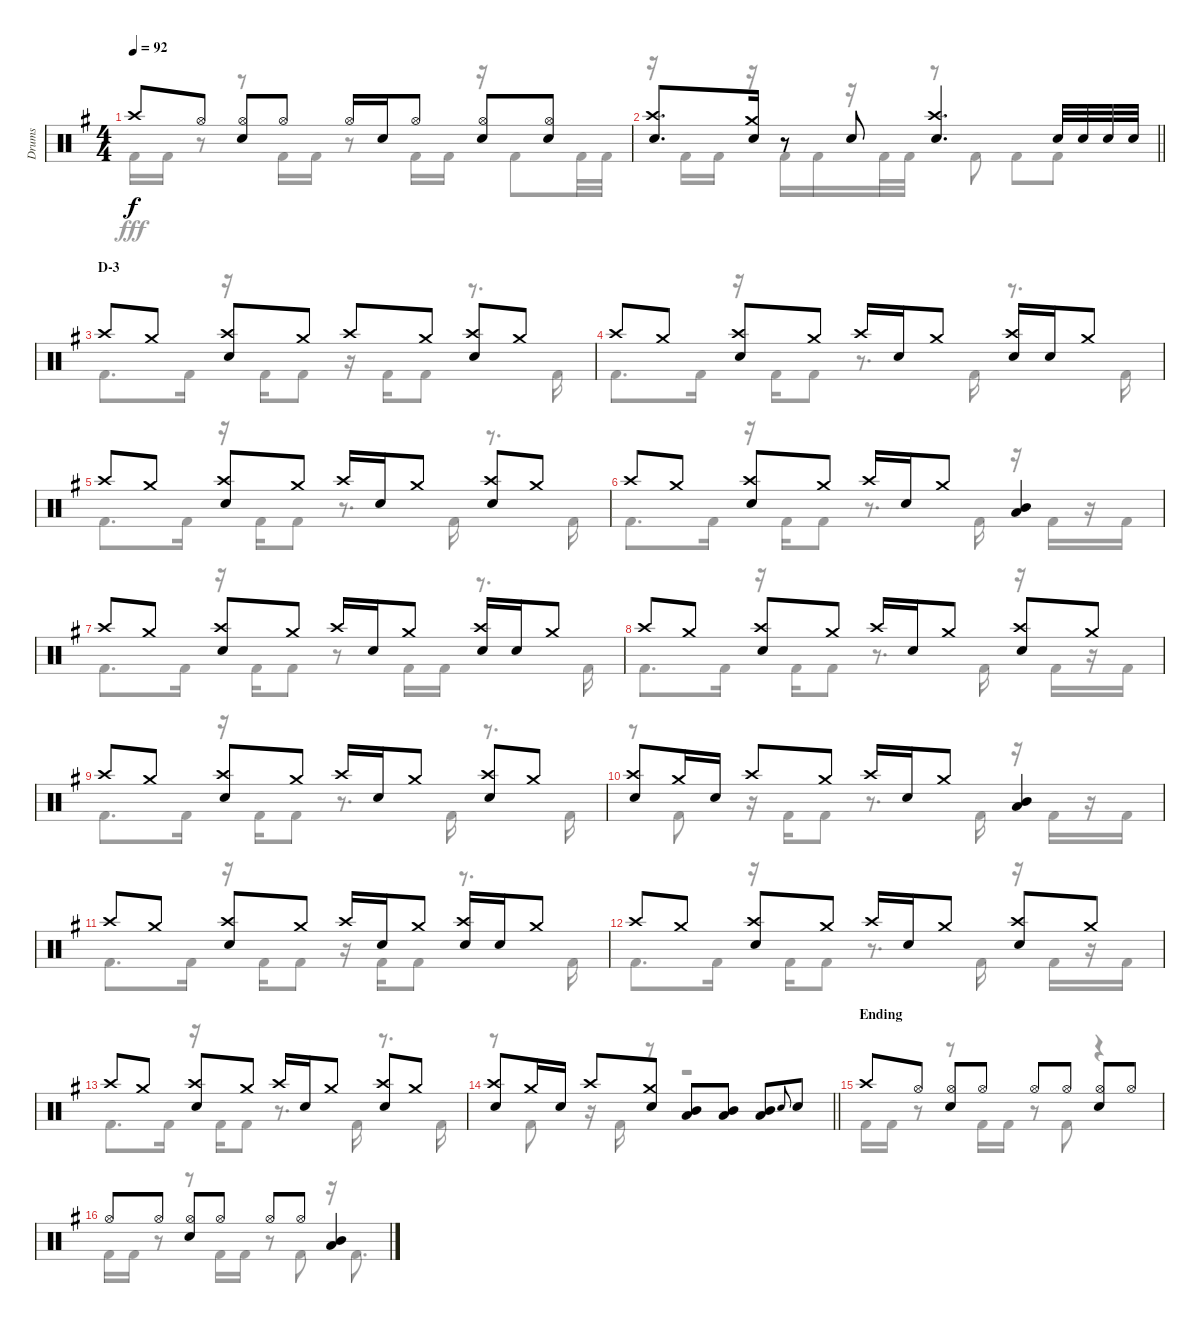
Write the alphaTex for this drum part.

\track ("Drums" "Drums") {instrument percussion}
\staff {score}
\articulation defaults
\voice
\ts (4 4)
\tempo 92
\clef neutral
\ks eminor "Crash high (hit)".8{dy f} "Hi-Hat (open)".8
("Hi-Hat (open)" "Snare (hit) 2").8 "Hi-Hat (open)".8 "Hi-Hat (open)".16 "Snare (hit) 2".16 "Hi-Hat (open)".8 ("Hi-Hat (open)" "Snare (hit) 2").8 ("Hi-Hat (open)" "Snare (hit) 2").8 |
\barLineRight lightlight
("Crash high (hit)" "Snare (hit) 2").8{d} ("Crash medium (hit)" "Snare (hit) 2").16 r.8 "Snare (hit) 2".8 ("Crash high (hit)" "Snare (hit) 2").4{d} "Snare (hit) 2".32 "Snare (hit) 2".32 "Snare (hit) 2".32 "Snare (hit) 2".32 |
\section ("" "D-3")
"Crash high (hit)".8 "Crash medium (hit)".8 ("Crash high (hit)" "Snare (hit) 2").8 "Crash medium (hit)".8 "Crash high (hit)".8 "Crash medium (hit)".8 ("Crash high (hit)" "Snare (hit) 2").8 "Crash medium (hit)".8 |
"Crash high (hit)".8 "Crash medium (hit)".8 ("Crash high (hit)" "Snare (hit) 2").8 "Crash medium (hit)".8 "Crash high (hit)".16 "Snare (hit) 2".16 "Crash medium (hit)".8 ("Crash high (hit)" "Snare (hit) 2").16 "Snare (hit) 2".16 "Crash medium (hit)".8 |
"Crash high (hit)".8 "Crash medium (hit)".8 ("Crash high (hit)" "Snare (hit) 2").8 "Crash medium (hit)".8 "Crash high (hit)".16 "Snare (hit) 2".16 "Crash medium (hit)".8 ("Crash high (hit)" "Snare (hit) 2").8 "Crash medium (hit)".8 |
"Crash high (hit)".8 "Crash medium (hit)".8 ("Crash high (hit)" "Snare (hit) 2").8 "Crash medium (hit)".8 "Crash high (hit)".16 "Snare (hit) 2".16 "Crash medium (hit)".8 ("Mid Tom (hit)" "Low Tom (hit)").4 |
"Crash high (hit)".8 "Crash medium (hit)".8 ("Crash high (hit)" "Snare (hit) 2").8 "Crash medium (hit)".8 "Crash high (hit)".16 "Snare (hit) 2".16 "Crash medium (hit)".8 ("Crash high (hit)" "Snare (hit) 2").16 "Snare (hit) 2".16 "Crash medium (hit)".8 |
"Crash high (hit)".8 "Crash medium (hit)".8 ("Crash high (hit)" "Snare (hit) 2").8 "Crash medium (hit)".8 "Crash high (hit)".16 "Snare (hit) 2".16 "Crash medium (hit)".8 ("Crash high (hit)" "Snare (hit) 2").8 "Crash medium (hit)".8 |
"Crash high (hit)".8 "Crash medium (hit)".8 ("Crash high (hit)" "Snare (hit) 2").8 "Crash medium (hit)".8 "Crash high (hit)".16 "Snare (hit) 2".16 "Crash medium (hit)".8 ("Crash high (hit)" "Snare (hit) 2").8 "Crash medium (hit)".8 |
("Crash high (hit)" "Snare (hit) 2").8 "Crash medium (hit)".16 "Snare (hit) 2".16 "Crash high (hit)".8 "Crash medium (hit)".8 "Crash high (hit)".16 "Snare (hit) 2".16 "Crash medium (hit)".8 ("Mid Tom (hit)" "Low Tom (hit)").4 |
"Crash high (hit)".8 "Crash medium (hit)".8 ("Crash high (hit)" "Snare (hit) 2").8 "Crash medium (hit)".8 "Crash high (hit)".16 "Snare (hit) 2".16 "Crash medium (hit)".8 ("Crash high (hit)" "Snare (hit) 2").16 "Snare (hit) 2".16 "Crash medium (hit)".8 |
"Crash high (hit)".8 "Crash medium (hit)".8 ("Crash high (hit)" "Snare (hit) 2").8 "Crash medium (hit)".8 "Crash high (hit)".16 "Snare (hit) 2".16 "Crash medium (hit)".8 ("Crash high (hit)" "Snare (hit) 2").8 "Crash medium (hit)".8 |
"Crash high (hit)".8 "Crash medium (hit)".8 ("Crash high (hit)" "Snare (hit) 2").8 "Crash medium (hit)".8 "Crash high (hit)".16 "Snare (hit) 2".16 "Crash medium (hit)".8 ("Crash high (hit)" "Snare (hit) 2").8 "Crash medium (hit)".8 |
\barLineRight lightlight
("Crash high (hit)" "Snare (hit) 2").8 "Crash medium (hit)".16 "Snare (hit) 2".16 "Crash high (hit)".8 ("Crash medium (hit)" "Snare (hit) 2").8 ("Mid Tom (hit)" "Low Tom (hit)").8 ("Mid Tom (hit)" "Low Tom (hit)").8 ("Mid Tom (hit)" "Low Tom (hit)").8 "Snare (hit) 2".8{gr onbeat} "Snare (hit) 2".8 |
\section ("" "Ending")
"Crash high (hit)".8 "Hi-Hat (open)".8 ("Hi-Hat (open)" "Snare (hit) 2").8 "Hi-Hat (open)".8 "Hi-Hat (open)".8 "Hi-Hat (open)".8 ("Hi-Hat (open)" "Snare (hit) 2").8 "Hi-Hat (open)".8 |
"Hi-Hat (open)".8 "Hi-Hat (open)".8 ("Hi-Hat (open)" "Snare (hit) 2").8 "Hi-Hat (open)".8 "Hi-Hat (open)".8 "Hi-Hat (open)".8 ("Mid Tom (hit)" "Low Tom (hit)").4
\voice
\clef neutral
\ottava regular
\simile none
\ks eminor "Kick (hit) 2".16{dy fff} "Kick (hit) 2".16
r.8 r.8 "Kick (hit) 2".16 "Kick (hit) 2".16 r.8 "Kick (hit) 2".16 "Kick (hit) 2".16 r.16 "Kick (hit) 2".8 "Kick (hit) 2".32 "Kick (hit) 2".32 |
\barLineRight lightlight
r.16 "Kick (hit) 2".16 "Kick (hit) 2".16 r.16 "Kick (hit) 2".16 "Kick (hit) 2".16 r.16 "Kick (hit) 2".32 "Kick (hit) 2".32 r.8 "Kick (hit) 2".8 "Kick (hit) 2".8 "Kick (hit) 2".8 |
"Kick (hit) 2".8{d} "Kick (hit) 2".16 r.16 "Kick (hit) 2".16 "Kick (hit) 2".8 r.16 "Kick (hit) 2".16 "Kick (hit) 2".8 r.8{d} "Kick (hit) 2".16 |
"Kick (hit) 2".8{d} "Kick (hit) 2".16 r.16 "Kick (hit) 2".16 "Kick (hit) 2".8 r.8{d} "Kick (hit) 2".16 r.8{d} "Kick (hit) 2".16 |
"Kick (hit) 2".8{d} "Kick (hit) 2".16 r.16 "Kick (hit) 2".16 "Kick (hit) 2".8 r.8{d} "Kick (hit) 2".16 r.8{d} "Kick (hit) 2".16 |
"Kick (hit) 2".8{d} "Kick (hit) 2".16 r.16 "Kick (hit) 2".16 "Kick (hit) 2".8 r.8{d} "Kick (hit) 2".16 r.16 "Kick (hit) 2".16 r.16 "Kick (hit) 2".16 |
"Kick (hit) 2".8{d} "Kick (hit) 2".16 r.16 "Kick (hit) 2".16 "Kick (hit) 2".8 r.8 "Kick (hit) 2".16 "Kick (hit) 2".16 r.8{d} "Kick (hit) 2".16 |
"Kick (hit) 2".8{d} "Kick (hit) 2".16 r.16 "Kick (hit) 2".16 "Kick (hit) 2".8 r.8{d} "Kick (hit) 2".16 r.16 "Kick (hit) 2".16 r.16 "Kick (hit) 2".16 |
"Kick (hit) 2".8{d} "Kick (hit) 2".16 r.16 "Kick (hit) 2".16 "Kick (hit) 2".8 r.8{d} "Kick (hit) 2".16 r.8{d} "Kick (hit) 2".16 |
r.8 "Kick (hit) 2".8 r.16 "Kick (hit) 2".16 "Kick (hit) 2".8 r.8{d} "Kick (hit) 2".16 r.16 "Kick (hit) 2".16 r.16 "Kick (hit) 2".16 |
"Kick (hit) 2".8{d} "Kick (hit) 2".16 r.16 "Kick (hit) 2".16 "Kick (hit) 2".8 r.16 "Kick (hit) 2".16 "Kick (hit) 2".8 r.8{d} "Kick (hit) 2".16 |
"Kick (hit) 2".8{d} "Kick (hit) 2".16 r.16 "Kick (hit) 2".16 "Kick (hit) 2".8 r.8{d} "Kick (hit) 2".16 r.16 "Kick (hit) 2".16 r.16 "Kick (hit) 2".16 |
"Kick (hit) 2".8{d} "Kick (hit) 2".16 r.16 "Kick (hit) 2".16 "Kick (hit) 2".8 r.8{d} "Kick (hit) 2".16 r.8{d} "Kick (hit) 2".16 |
\barLineRight lightlight
r.8 "Kick (hit) 2".8 r.16 "Kick (hit) 2".16 r.8 r.2 |
"Kick (hit) 2".16 "Kick (hit) 2".16 r.8 r.8 "Kick (hit) 2".16 "Kick (hit) 2".16 r.8 "Kick (hit) 2".8 r.4 |
"Kick (hit) 2".16 "Kick (hit) 2".16 r.8 r.8 "Kick (hit) 2".16 "Kick (hit) 2".16 r.8 "Kick (hit) 2".8 r.16 "Kick (hit) 2".8{d}
